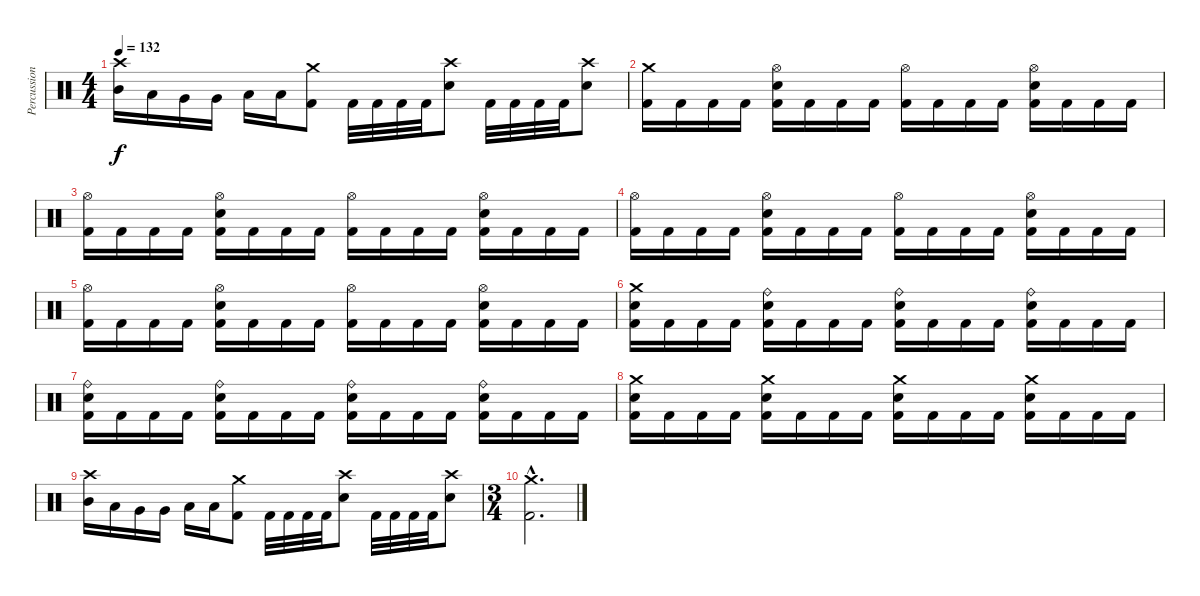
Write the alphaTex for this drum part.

\track ("Percussion" "Percussion") {instrument percussion}
\staff {score}
\articulation defaults
\ts (4 4)
\tempo 132
\clef neutral
\ks c
("Crash high (hit)" "Mid Tom (hit)").16{dy f} "Low Tom (hit)".16 "Very Low Tom (hit)".16 "Very Low Tom (hit)".16 "Low Floor Tom (hit)".16 "Low Floor Tom (hit)".16 ("Crash medium (hit)" "Kick (hit) 2").8 "Kick (hit) 2".32 "Kick (hit) 2".32 "Kick (hit) 2".32 "Kick (hit) 2".32 ("Crash high (hit)" "Electric Snare (hit)").8 "Kick (hit) 2".32 "Kick (hit) 2".32 "Kick (hit) 2".32 "Kick (hit) 2".32 ("Crash high (hit)" "Electric Snare (hit)").8 |
("Crash medium (hit)" "Kick (hit) 2").16 "Kick (hit) 2".16 "Kick (hit) 2".16 "Kick (hit) 2".16 ("Hi-Hat (open)" "Electric Snare (hit)" "Kick (hit) 2").16 "Kick (hit) 2".16 "Kick (hit) 2".16 "Kick (hit) 2".16 ("Hi-Hat (open)" "Kick (hit) 2").16 "Kick (hit) 2".16 "Kick (hit) 2".16 "Kick (hit) 2".16 ("Hi-Hat (open)" "Electric Snare (hit)" "Kick (hit) 2").16 "Kick (hit) 2".16 "Kick (hit) 2".16 "Kick (hit) 2".16 |
("Hi-Hat (open)" "Kick (hit) 2").16 "Kick (hit) 2".16 "Kick (hit) 2".16 "Kick (hit) 2".16 ("Hi-Hat (open)" "Electric Snare (hit)" "Kick (hit) 2").16 "Kick (hit) 2".16 "Kick (hit) 2".16 "Kick (hit) 2".16 ("Hi-Hat (open)" "Kick (hit) 2").16 "Kick (hit) 2".16 "Kick (hit) 2".16 "Kick (hit) 2".16 ("Hi-Hat (open)" "Electric Snare (hit)" "Kick (hit) 2").16 "Kick (hit) 2".16 "Kick (hit) 2".16 "Kick (hit) 2".16 |
("Hi-Hat (open)" "Kick (hit) 2").16 "Kick (hit) 2".16 "Kick (hit) 2".16 "Kick (hit) 2".16 ("Hi-Hat (open)" "Electric Snare (hit)" "Kick (hit) 2").16 "Kick (hit) 2".16 "Kick (hit) 2".16 "Kick (hit) 2".16 ("Hi-Hat (open)" "Kick (hit) 2").16 "Kick (hit) 2".16 "Kick (hit) 2".16 "Kick (hit) 2".16 ("Hi-Hat (open)" "Electric Snare (hit)" "Kick (hit) 2").16 "Kick (hit) 2".16 "Kick (hit) 2".16 "Kick (hit) 2".16 |
("Hi-Hat (open)" "Kick (hit) 2").16 "Kick (hit) 2".16 "Kick (hit) 2".16 "Kick (hit) 2".16 ("Hi-Hat (open)" "Electric Snare (hit)" "Kick (hit) 2").16 "Kick (hit) 2".16 "Kick (hit) 2".16 "Kick (hit) 2".16 ("Hi-Hat (open)" "Kick (hit) 2").16 "Kick (hit) 2".16 "Kick (hit) 2".16 "Kick (hit) 2".16 ("Hi-Hat (open)" "Electric Snare (hit)" "Kick (hit) 2").16 "Kick (hit) 2".16 "Kick (hit) 2".16 "Kick (hit) 2".16 |
("Crash medium (hit)" "Electric Snare (hit)" "Kick (hit) 2").16 "Kick (hit) 2".16 "Kick (hit) 2".16 "Kick (hit) 2".16 ("Ride (bell)" "Electric Snare (hit)" "Kick (hit) 2").16 "Kick (hit) 2".16 "Kick (hit) 2".16 "Kick (hit) 2".16 ("Ride (bell)" "Electric Snare (hit)" "Kick (hit) 2").16 "Kick (hit) 2".16 "Kick (hit) 2".16 "Kick (hit) 2".16 ("Ride (bell)" "Electric Snare (hit)" "Kick (hit) 2").16 "Kick (hit) 2".16 "Kick (hit) 2".16 "Kick (hit) 2".16 |
("Ride (bell)" "Electric Snare (hit)" "Kick (hit) 2").16 "Kick (hit) 2".16 "Kick (hit) 2".16 "Kick (hit) 2".16 ("Ride (bell)" "Electric Snare (hit)" "Kick (hit) 2").16 "Kick (hit) 2".16 "Kick (hit) 2".16 "Kick (hit) 2".16 ("Ride (bell)" "Electric Snare (hit)" "Kick (hit) 2").16 "Kick (hit) 2".16 "Kick (hit) 2".16 "Kick (hit) 2".16 ("Ride (bell)" "Electric Snare (hit)" "Kick (hit) 2").16 "Kick (hit) 2".16 "Kick (hit) 2".16 "Kick (hit) 2".16 |
("Crash medium (hit)" "Electric Snare (hit)" "Kick (hit) 2").16 "Kick (hit) 2".16 "Kick (hit) 2".16 "Kick (hit) 2".16 ("Crash medium (hit)" "Electric Snare (hit)" "Kick (hit) 2").16 "Kick (hit) 2".16 "Kick (hit) 2".16 "Kick (hit) 2".16 ("Crash medium (hit)" "Electric Snare (hit)" "Kick (hit) 2").16 "Kick (hit) 2".16 "Kick (hit) 2".16 "Kick (hit) 2".16 ("Crash medium (hit)" "Electric Snare (hit)" "Kick (hit) 2").16 "Kick (hit) 2".16 "Kick (hit) 2".16 "Kick (hit) 2".16 |
("Crash high (hit)" "Mid Tom (hit)").16 "Low Tom (hit)".16 "Very Low Tom (hit)".16 "Very Low Tom (hit)".16 "Low Floor Tom (hit)".16 "Low Floor Tom (hit)".16 ("Crash medium (hit)" "Kick (hit) 2").8 "Kick (hit) 2".32 "Kick (hit) 2".32 "Kick (hit) 2".32 "Kick (hit) 2".32 ("Crash high (hit)" "Electric Snare (hit)").8 "Kick (hit) 2".32 "Kick (hit) 2".32 "Kick (hit) 2".32 "Kick (hit) 2".32 ("Crash high (hit)" "Electric Snare (hit)").8 |
\ts (3 4)
("Crash medium (hit)"{hac} "Kick (hit) 2"{hac}).2{d}
